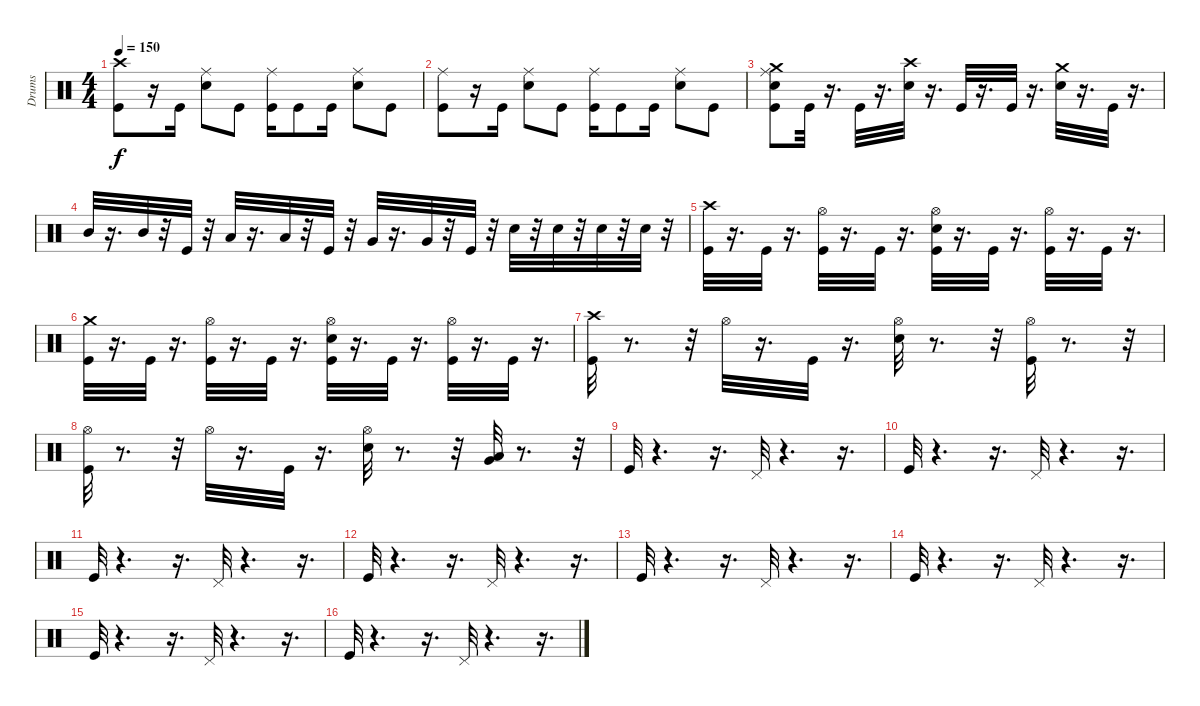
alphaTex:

\track ("Drums" "Drums") {instrument percussion}
\staff {score}
\articulation defaults
\ts (4 4)
\tempo 150
\clef neutral
\ks c
("Crash high (hit)" "Kick (hit)").8{dy f} r.16 "Kick (hit)".16 ("Ride (middle)" "Electric Snare (hit)").8 "Kick (hit)".8 ("Ride (middle)" "Kick (hit)").16 "Kick (hit)".8 "Kick (hit)".16 ("Ride (middle)" "Electric Snare (hit)").8 "Kick (hit)".8 |
("Kick (hit)" "Ride (middle)").8 r.16 "Kick (hit)".16 ("Ride (middle)" "Electric Snare (hit)").8 "Kick (hit)".8 ("Ride (middle)" "Kick (hit)").16 "Kick (hit)".8 "Kick (hit)".16 ("Ride (middle)" "Electric Snare (hit)").8 "Kick (hit)".8 |
("Crash medium (hit)" "Electric Snare (hit)" "Ride (middle)" "Kick (hit)").8 "Kick (hit)".32 r.16{d} "Kick (hit)".32 r.16{d} ("Crash high (hit)" "Electric Snare (hit)").32 r.16{d} "Kick (hit)".32 r.16{d} "Kick (hit)".32 r.16{d} ("Crash medium (hit)" "Electric Snare (hit)").32 r.16{d} "Kick (hit)".32 r.16{d} |
"Mid Tom (hit)".32 r.16{d} "Mid Tom (hit)".32 r.32 "Kick (hit)".32 r.32 "Low Tom (hit)".32 r.16{d} "Low Tom (hit)".32 r.32 "Kick (hit)".32 r.32 "Very Low Tom (hit)".32 r.16{d} "Very Low Tom (hit)".32 r.32 "Kick (hit)".32 r.32 "Electric Snare (hit)".32 r.32 "Electric Snare (hit)".32 r.32 "Electric Snare (hit)".32 r.32 "Electric Snare (hit)".32 r.32 |
("Crash high (hit)" "Kick (hit)").32 r.16{d} "Kick (hit)".32 r.16{d} ("Hi-Hat (open)" "Kick (hit)").32 r.16{d} "Kick (hit)".32 r.16{d} ("Kick (hit)" "Hi-Hat (open)" "Electric Snare (hit)").32 r.16{d} "Kick (hit)".32 r.16{d} ("Hi-Hat (open)" "Kick (hit)").32 r.16{d} "Kick (hit)".32 r.16{d} |
("Crash medium (hit)" "Kick (hit)").32 r.16{d} "Kick (hit)".32 r.16{d} ("Hi-Hat (open)" "Kick (hit)").32 r.16{d} "Kick (hit)".32 r.16{d} ("Hi-Hat (open)" "Kick (hit)" "Electric Snare (hit)").32 r.16{d} "Kick (hit)".32 r.16{d} ("Kick (hit)" "Hi-Hat (open)").32 r.16{d} "Kick (hit)".32 r.16{d} |
("Crash high (hit)" "Kick (hit)").32 r.8{d} r.32 "Hi-Hat (open)".32 r.16{d} "Kick (hit)".32 r.16{d} ("Hi-Hat (open)" "Electric Snare (hit)").32 r.8{d} r.32 ("Hi-Hat (open)" "Kick (hit)").32 r.8{d} r.32 |
("Hi-Hat (open)" "Kick (hit)").32 r.8{d} r.32 "Hi-Hat (open)".32 r.16{d} "Kick (hit)".32 r.16{d} ("Hi-Hat (open)" "Electric Snare (hit)").32 r.8{d} r.32 ("Very Low Tom (hit)" "Low Tom (hit)").32 r.8{d} r.32 |
"Kick (hit)".32 r.4{d} r.16{d} "Pedal Hi-Hat (hit)".32 r.4{d} r.16{d} |
"Kick (hit)".32 r.4{d} r.16{d} "Pedal Hi-Hat (hit)".32 r.4{d} r.16{d} |
"Kick (hit)".32 r.4{d} r.16{d} "Pedal Hi-Hat (hit)".32 r.4{d} r.16{d} |
"Kick (hit)".32 r.4{d} r.16{d} "Pedal Hi-Hat (hit)".32 r.4{d} r.16{d} |
"Kick (hit)".32 r.4{d} r.16{d} "Pedal Hi-Hat (hit)".32 r.4{d} r.16{d} |
"Kick (hit)".32 r.4{d} r.16{d} "Pedal Hi-Hat (hit)".32 r.4{d} r.16{d} |
"Kick (hit)".32 r.4{d} r.16{d} "Pedal Hi-Hat (hit)".32 r.4{d} r.16{d} |
"Kick (hit)".32 r.4{d} r.16{d} "Pedal Hi-Hat (hit)".32 r.4{d} r.16{d}
